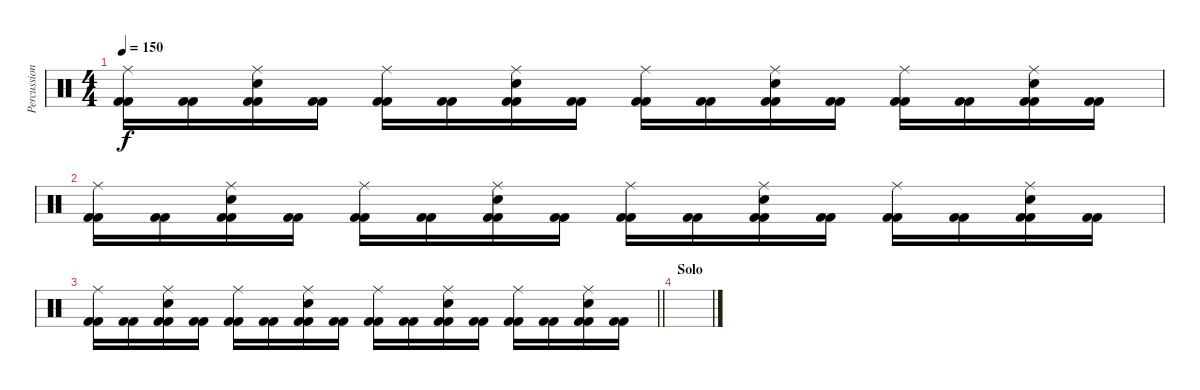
\track ("Percussion" "Percussion") {instrument percussion}
\staff {score}
\articulation defaults
\ts (4 4)
\tempo 150
\clef neutral
\ks c
("Kick (hit) 2" "Kick (hit) 2" "Ride (middle)").16{dy f} ("Kick (hit) 2" "Kick (hit) 2").16 ("Kick (hit) 2" "Kick (hit) 2" "Electric Snare (hit)" "Ride (middle)").16 ("Kick (hit) 2" "Kick (hit) 2").16 ("Kick (hit) 2" "Kick (hit) 2" "Ride (middle)").16 ("Kick (hit) 2" "Kick (hit) 2").16 ("Kick (hit) 2" "Kick (hit) 2" "Electric Snare (hit)" "Ride (middle)").16 ("Kick (hit) 2" "Kick (hit) 2").16 ("Kick (hit) 2" "Kick (hit) 2" "Ride (middle)").16 ("Kick (hit) 2" "Kick (hit) 2").16 ("Kick (hit) 2" "Kick (hit) 2" "Electric Snare (hit)" "Ride (middle)").16 ("Kick (hit) 2" "Kick (hit) 2").16 ("Kick (hit) 2" "Kick (hit) 2" "Ride (middle)").16 ("Kick (hit) 2" "Kick (hit) 2").16 ("Kick (hit) 2" "Kick (hit) 2" "Electric Snare (hit)" "Ride (middle)").16 ("Kick (hit) 2" "Kick (hit) 2").16 |
("Kick (hit) 2" "Kick (hit) 2" "Ride (middle)").16 ("Kick (hit) 2" "Kick (hit) 2").16 ("Kick (hit) 2" "Kick (hit) 2" "Electric Snare (hit)" "Ride (middle)").16 ("Kick (hit) 2" "Kick (hit) 2").16 ("Kick (hit) 2" "Kick (hit) 2" "Ride (middle)").16 ("Kick (hit) 2" "Kick (hit) 2").16 ("Kick (hit) 2" "Kick (hit) 2" "Electric Snare (hit)" "Ride (middle)").16 ("Kick (hit) 2" "Kick (hit) 2").16 ("Kick (hit) 2" "Kick (hit) 2" "Ride (middle)").16 ("Kick (hit) 2" "Kick (hit) 2").16 ("Kick (hit) 2" "Kick (hit) 2" "Electric Snare (hit)" "Ride (middle)").16 ("Kick (hit) 2" "Kick (hit) 2").16 ("Kick (hit) 2" "Kick (hit) 2" "Ride (middle)").16 ("Kick (hit) 2" "Kick (hit) 2").16 ("Kick (hit) 2" "Kick (hit) 2" "Electric Snare (hit)" "Ride (middle)").16 ("Kick (hit) 2" "Kick (hit) 2").16 |
\barLineRight lightlight
("Kick (hit) 2" "Kick (hit) 2" "Ride (middle)").16 ("Kick (hit) 2" "Kick (hit) 2").16 ("Kick (hit) 2" "Kick (hit) 2" "Electric Snare (hit)" "Ride (middle)").16 ("Kick (hit) 2" "Kick (hit) 2").16 ("Kick (hit) 2" "Kick (hit) 2" "Ride (middle)").16 ("Kick (hit) 2" "Kick (hit) 2").16 ("Kick (hit) 2" "Kick (hit) 2" "Electric Snare (hit)" "Ride (middle)").16 ("Kick (hit) 2" "Kick (hit) 2").16 ("Kick (hit) 2" "Kick (hit) 2" "Ride (middle)").16 ("Kick (hit) 2" "Kick (hit) 2").16 ("Kick (hit) 2" "Kick (hit) 2" "Electric Snare (hit)" "Ride (middle)").16 ("Kick (hit) 2" "Kick (hit) 2").16 ("Kick (hit) 2" "Kick (hit) 2" "Ride (middle)").16 ("Kick (hit) 2" "Kick (hit) 2").16 ("Kick (hit) 2" "Kick (hit) 2" "Electric Snare (hit)" "Ride (middle)").16 ("Kick (hit) 2" "Kick (hit) 2").16 |
\section ("" "Solo")
